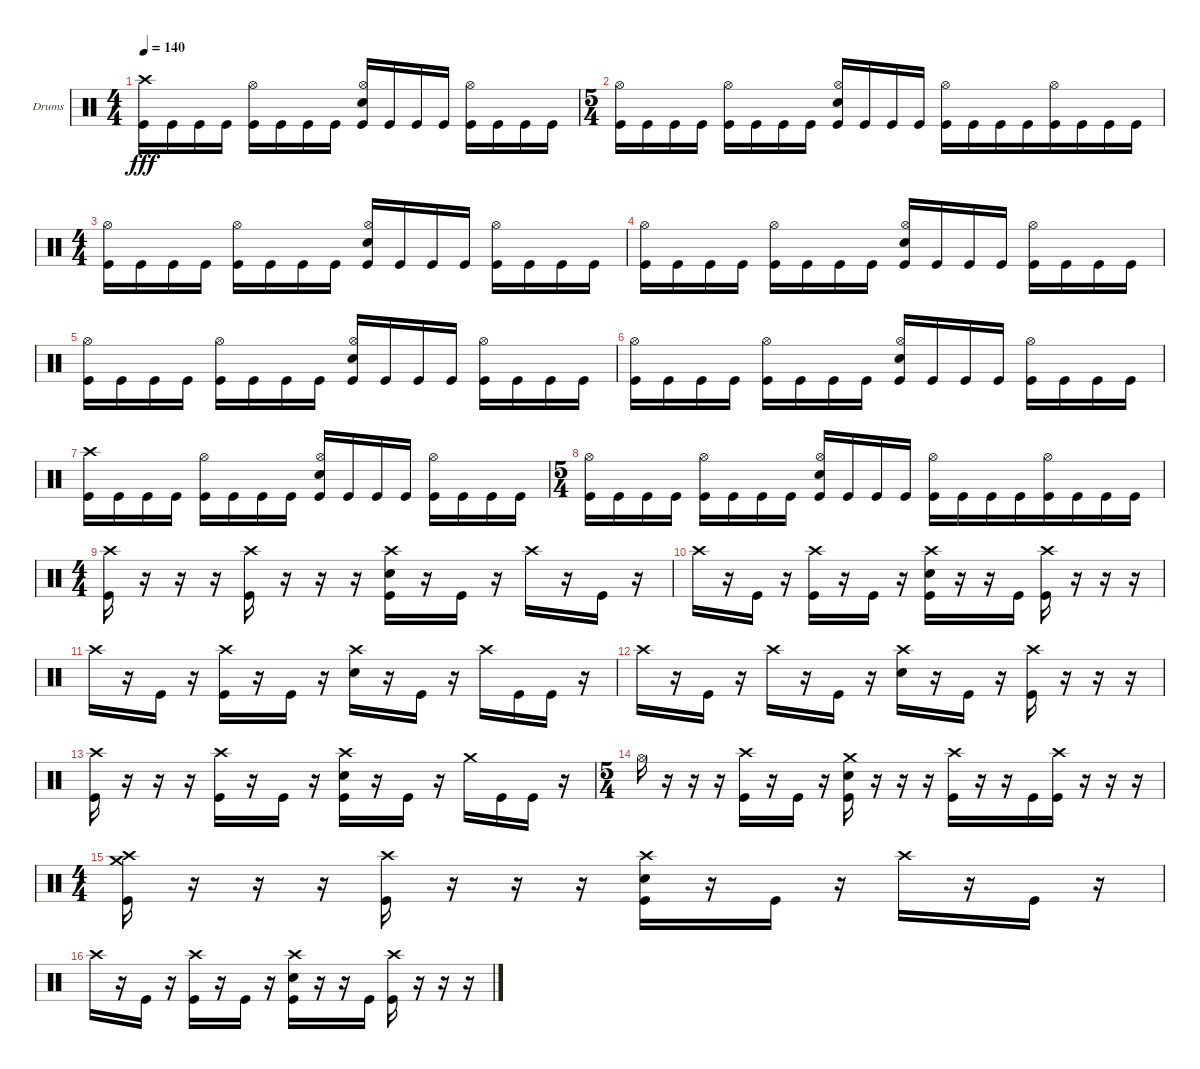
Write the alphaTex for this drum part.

\bracketExtendMode groupsimilarinstruments
\firstSystemTrackNameOrientation horizontal
\otherSystemsTrackNameOrientation horizontal
\track ("Drumkit" "Drums") {instrument percussion}
\staff {score}
\articulation defaults
\ts (4 4)
\tempo 140
\clef neutral
\ks c
("Crash high (hit)" "Kick (hit)").16{dy fff} "Kick (hit)".16 "Kick (hit)".16 "Kick (hit)".16 ("Hi-Hat (open)" "Kick (hit)").16 "Kick (hit)".16 "Kick (hit)".16 "Kick (hit)".16 ("Hi-Hat (open)" "Snare (hit) 2" "Kick (hit)").16 "Kick (hit)".16 "Kick (hit)".16 "Kick (hit)".16 ("Hi-Hat (open)" "Kick (hit)").16 "Kick (hit)".16 "Kick (hit)".16 "Kick (hit)".16 |
\ts (5 4)
\beaming (8 2 2 2 4)
("Hi-Hat (open)" "Kick (hit)").16 "Kick (hit)".16 "Kick (hit)".16 "Kick (hit)".16 ("Hi-Hat (open)" "Kick (hit)").16 "Kick (hit)".16 "Kick (hit)".16 "Kick (hit)".16 ("Hi-Hat (open)" "Snare (hit) 2" "Kick (hit)").16 "Kick (hit)".16 "Kick (hit)".16 "Kick (hit)".16 ("Hi-Hat (open)" "Kick (hit)").16 "Kick (hit)".16 "Kick (hit)".16 "Kick (hit)".16 ("Hi-Hat (open)" "Kick (hit)").16 "Kick (hit)".16 "Kick (hit)".16 "Kick (hit)".16 |
\ts (4 4)
\beaming (8 2 2 2 2)
("Hi-Hat (open)" "Kick (hit)").16 "Kick (hit)".16 "Kick (hit)".16 "Kick (hit)".16 ("Hi-Hat (open)" "Kick (hit)").16 "Kick (hit)".16 "Kick (hit)".16 "Kick (hit)".16 ("Hi-Hat (open)" "Snare (hit) 2" "Kick (hit)").16 "Kick (hit)".16 "Kick (hit)".16 "Kick (hit)".16 ("Hi-Hat (open)" "Kick (hit)").16 "Kick (hit)".16 "Kick (hit)".16 "Kick (hit)".16 |
("Hi-Hat (open)" "Kick (hit)").16 "Kick (hit)".16 "Kick (hit)".16 "Kick (hit)".16 ("Hi-Hat (open)" "Kick (hit)").16 "Kick (hit)".16 "Kick (hit)".16 "Kick (hit)".16 ("Hi-Hat (open)" "Snare (hit) 2" "Kick (hit)").16 "Kick (hit)".16 "Kick (hit)".16 "Kick (hit)".16 ("Hi-Hat (open)" "Kick (hit)").16 "Kick (hit)".16 "Kick (hit)".16 "Kick (hit)".16 |
("Hi-Hat (open)" "Kick (hit)").16 "Kick (hit)".16 "Kick (hit)".16 "Kick (hit)".16 ("Hi-Hat (open)" "Kick (hit)").16 "Kick (hit)".16 "Kick (hit)".16 "Kick (hit)".16 ("Hi-Hat (open)" "Snare (hit) 2" "Kick (hit)").16 "Kick (hit)".16 "Kick (hit)".16 "Kick (hit)".16 ("Hi-Hat (open)" "Kick (hit)").16 "Kick (hit)".16 "Kick (hit)".16 "Kick (hit)".16 |
("Hi-Hat (open)" "Kick (hit)").16 "Kick (hit)".16 "Kick (hit)".16 "Kick (hit)".16 ("Hi-Hat (open)" "Kick (hit)").16 "Kick (hit)".16 "Kick (hit)".16 "Kick (hit)".16 ("Hi-Hat (open)" "Snare (hit) 2" "Kick (hit)").16 "Kick (hit)".16 "Kick (hit)".16 "Kick (hit)".16 ("Hi-Hat (open)" "Kick (hit)").16 "Kick (hit)".16 "Kick (hit)".16 "Kick (hit)".16 |
("Crash high (hit)" "Kick (hit)").16 "Kick (hit)".16 "Kick (hit)".16 "Kick (hit)".16 ("Hi-Hat (open)" "Kick (hit)").16 "Kick (hit)".16 "Kick (hit)".16 "Kick (hit)".16 ("Hi-Hat (open)" "Snare (hit) 2" "Kick (hit)").16 "Kick (hit)".16 "Kick (hit)".16 "Kick (hit)".16 ("Hi-Hat (open)" "Kick (hit)").16 "Kick (hit)".16 "Kick (hit)".16 "Kick (hit)".16 |
\ts (5 4)
\beaming (8 2 2 2 4)
("Hi-Hat (open)" "Kick (hit)").16 "Kick (hit)".16 "Kick (hit)".16 "Kick (hit)".16 ("Hi-Hat (open)" "Kick (hit)").16 "Kick (hit)".16 "Kick (hit)".16 "Kick (hit)".16 ("Hi-Hat (open)" "Snare (hit) 2" "Kick (hit)").16 "Kick (hit)".16 "Kick (hit)".16 "Kick (hit)".16 ("Hi-Hat (open)" "Kick (hit)").16 "Kick (hit)".16 "Kick (hit)".16 "Kick (hit)".16 ("Hi-Hat (open)" "Kick (hit)").16 "Kick (hit)".16 "Kick (hit)".16 "Kick (hit)".16 |
\ts (4 4)
\beaming (8 2 2 2 2)
("Crash high (hit)" "Kick (hit)").16 r.16 r.16 r.16 ("Crash high (hit)" "Kick (hit)").16 r.16 r.16 r.16 ("Crash high (hit)" "Snare (hit) 2" "Kick (hit)").16 r.16 "Kick (hit)".16 r.16 "Crash high (hit)".16 r.16 "Kick (hit)".16 r.16 |
"Crash high (hit)".16 r.16 "Kick (hit)".16 r.16 ("Crash high (hit)" "Kick (hit)").16 r.16 "Kick (hit)".16 r.16 ("Crash high (hit)" "Snare (hit) 2" "Kick (hit)").16 r.16 r.16 "Kick (hit)".16 ("Crash high (hit)" "Kick (hit)").16 r.16 r.16 r.16 |
"Crash high (hit)".16 r.16 "Kick (hit)".16 r.16 ("Crash high (hit)" "Kick (hit)").16 r.16 "Kick (hit)".16 r.16 ("Crash high (hit)" "Snare (hit) 2").16 r.16 "Kick (hit)".16 r.16 "Crash high (hit)".16 "Kick (hit)".16 "Kick (hit)".16 r.16 |
"Crash high (hit)".16 r.16 "Kick (hit)".16 r.16 "Crash high (hit)".16 r.16 "Kick (hit)".16 r.16 ("Crash high (hit)" "Snare (hit) 2").16 r.16 "Kick (hit)".16 r.16 ("Crash high (hit)" "Kick (hit)").16 r.16 r.16 r.16 |
("Crash high (hit)" "Kick (hit)").16 r.16 r.16 r.16 ("Crash high (hit)" "Kick (hit)").16 r.16 "Kick (hit)".16 r.16 ("Crash high (hit)" "Snare (hit) 2" "Kick (hit)").16 r.16 "Kick (hit)".16 r.16 "Crash medium (hit)".16 "Kick (hit)".16 "Kick (hit)".16 r.16 |
\ts (5 4)
\beaming (8 2 2 2 4)
"Hi-Hat (open)".16 r.16 r.16 r.16 ("Crash high (hit)" "Kick (hit)").16 r.16 "Kick (hit)".16 r.16 ("Crash medium (hit)" "Snare (hit) 2" "Kick (hit)").16 r.16 r.16 r.16 ("Crash high (hit)" "Kick (hit)").16 r.16 r.16 "Kick (hit)".16 ("Crash high (hit)" "Kick (hit)").16 r.16 r.16 r.16 |
\ts (4 4)
\beaming (8 2 2 2 2)
("Crash medium (hit)" "Crash high (hit)" "Kick (hit)").16 r.16 r.16 r.16 ("Crash high (hit)" "Kick (hit)").16 r.16 r.16 r.16 ("Crash high (hit)" "Snare (hit) 2" "Kick (hit)").16 r.16 "Kick (hit)".16 r.16 "Crash high (hit)".16 r.16 "Kick (hit)".16 r.16 |
"Crash high (hit)".16 r.16 "Kick (hit)".16 r.16 ("Crash high (hit)" "Kick (hit)").16 r.16 "Kick (hit)".16 r.16 ("Crash high (hit)" "Snare (hit) 2" "Kick (hit)").16 r.16 r.16 "Kick (hit)".16 ("Crash high (hit)" "Kick (hit)").16 r.16 r.16 r.16
